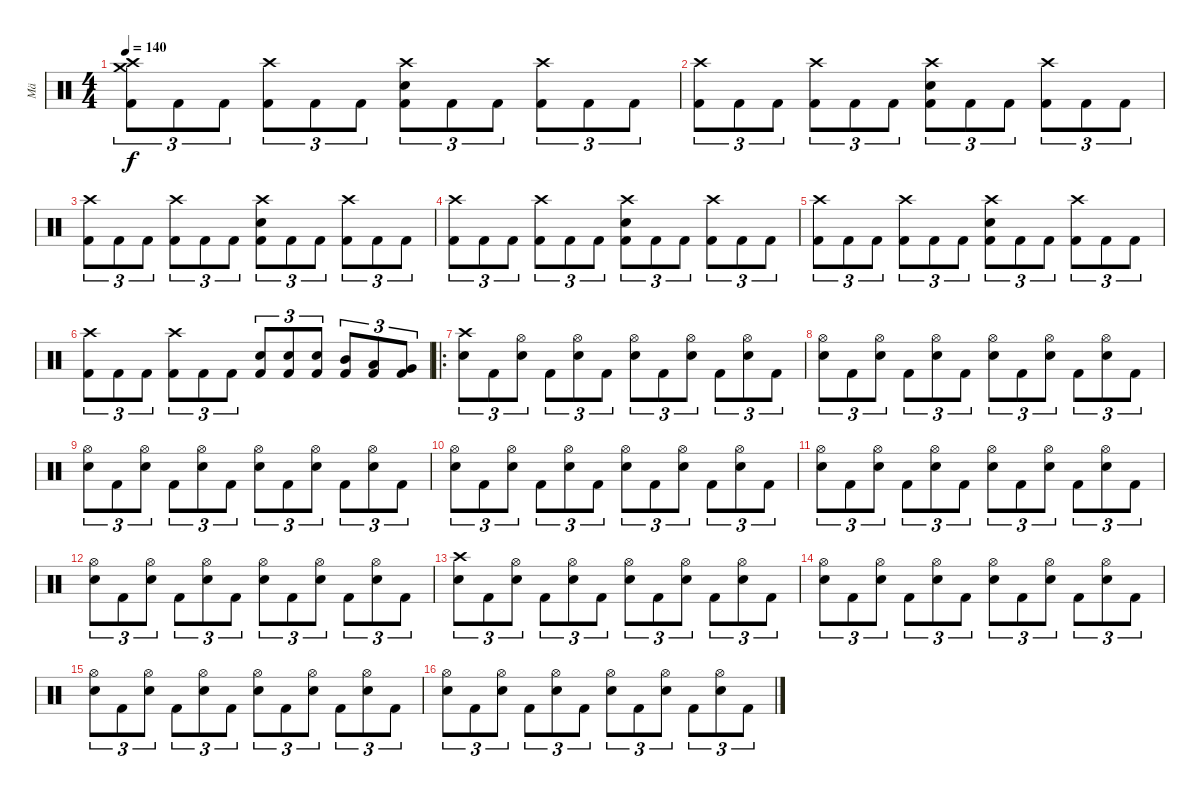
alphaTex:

\track ("Mä" "Mä") {instrument percussion}
\staff {score}
\articulation defaults
\ts (4 4)
\tempo 140
\clef neutral
\ks c
("Crash medium (hit)" "Crash high (hit)" "Kick (hit) 2").8{tu (3 2) dy f} "Kick (hit) 2".8{tu (3 2)} "Kick (hit) 2".8{tu (3 2)} ("Crash high (hit)" "Kick (hit) 2").8{tu (3 2)} "Kick (hit) 2".8{tu (3 2)} "Kick (hit) 2".8{tu (3 2)} ("Crash high (hit)" "Snare (hit) 2" "Kick (hit) 2").8{tu (3 2)} "Kick (hit) 2".8{tu (3 2)} "Kick (hit) 2".8{tu (3 2)} ("Crash high (hit)" "Kick (hit) 2").8{tu (3 2)} "Kick (hit) 2".8{tu (3 2)} "Kick (hit) 2".8{tu (3 2)} |
("Crash high (hit)" "Kick (hit) 2").8{tu (3 2)} "Kick (hit) 2".8{tu (3 2)} "Kick (hit) 2".8{tu (3 2)} ("Crash high (hit)" "Kick (hit) 2").8{tu (3 2)} "Kick (hit) 2".8{tu (3 2)} "Kick (hit) 2".8{tu (3 2)} ("Crash high (hit)" "Snare (hit) 2" "Kick (hit) 2").8{tu (3 2)} "Kick (hit) 2".8{tu (3 2)} "Kick (hit) 2".8{tu (3 2)} ("Crash high (hit)" "Kick (hit) 2").8{tu (3 2)} "Kick (hit) 2".8{tu (3 2)} "Kick (hit) 2".8{tu (3 2)} |
("Crash high (hit)" "Kick (hit) 2").8{tu (3 2)} "Kick (hit) 2".8{tu (3 2)} "Kick (hit) 2".8{tu (3 2)} ("Crash high (hit)" "Kick (hit) 2").8{tu (3 2)} "Kick (hit) 2".8{tu (3 2)} "Kick (hit) 2".8{tu (3 2)} ("Crash high (hit)" "Snare (hit) 2" "Kick (hit) 2").8{tu (3 2)} "Kick (hit) 2".8{tu (3 2)} "Kick (hit) 2".8{tu (3 2)} ("Crash high (hit)" "Kick (hit) 2").8{tu (3 2)} "Kick (hit) 2".8{tu (3 2)} "Kick (hit) 2".8{tu (3 2)} |
("Crash high (hit)" "Kick (hit) 2").8{tu (3 2)} "Kick (hit) 2".8{tu (3 2)} "Kick (hit) 2".8{tu (3 2)} ("Crash high (hit)" "Kick (hit) 2").8{tu (3 2)} "Kick (hit) 2".8{tu (3 2)} "Kick (hit) 2".8{tu (3 2)} ("Crash high (hit)" "Snare (hit) 2" "Kick (hit) 2").8{tu (3 2)} "Kick (hit) 2".8{tu (3 2)} "Kick (hit) 2".8{tu (3 2)} ("Crash high (hit)" "Kick (hit) 2").8{tu (3 2)} "Kick (hit) 2".8{tu (3 2)} "Kick (hit) 2".8{tu (3 2)} |
("Crash high (hit)" "Kick (hit) 2").8{tu (3 2)} "Kick (hit) 2".8{tu (3 2)} "Kick (hit) 2".8{tu (3 2)} ("Crash high (hit)" "Kick (hit) 2").8{tu (3 2)} "Kick (hit) 2".8{tu (3 2)} "Kick (hit) 2".8{tu (3 2)} ("Crash high (hit)" "Snare (hit) 2" "Kick (hit) 2").8{tu (3 2)} "Kick (hit) 2".8{tu (3 2)} "Kick (hit) 2".8{tu (3 2)} ("Crash high (hit)" "Kick (hit) 2").8{tu (3 2)} "Kick (hit) 2".8{tu (3 2)} "Kick (hit) 2".8{tu (3 2)} |
("Crash high (hit)" "Kick (hit) 2").8{tu (3 2)} "Kick (hit) 2".8{tu (3 2)} "Kick (hit) 2".8{tu (3 2)} ("Crash high (hit)" "Kick (hit) 2").8{tu (3 2)} "Kick (hit) 2".8{tu (3 2)} "Kick (hit) 2".8{tu (3 2)} ("Snare (hit) 2" "Kick (hit) 2").8{tu (3 2)} ("Snare (hit) 2" "Kick (hit) 2").8{tu (3 2)} ("Snare (hit) 2" "Kick (hit) 2").8{tu (3 2)} ("Mid Tom (hit)" "Kick (hit) 2").8{tu (3 2)} ("Low Tom (hit)" "Kick (hit) 2").8{tu (3 2)} ("Very Low Tom (hit)" "Kick (hit) 2").8{tu (3 2)} |
\ro
("Crash high (hit)" "Snare (hit) 2").8{tu (3 2)} "Kick (hit) 2".8{tu (3 2)} ("Hi-Hat (open)" "Snare (hit) 2").8{tu (3 2)} "Kick (hit) 2".8{tu (3 2)} ("Hi-Hat (open)" "Snare (hit) 2").8{tu (3 2)} "Kick (hit) 2".8{tu (3 2)} ("Hi-Hat (open)" "Snare (hit) 2").8{tu (3 2)} "Kick (hit) 2".8{tu (3 2)} ("Hi-Hat (open)" "Snare (hit) 2").8{tu (3 2)} "Kick (hit) 2".8{tu (3 2)} ("Hi-Hat (open)" "Snare (hit) 2").8{tu (3 2)} "Kick (hit) 2".8{tu (3 2)} |
("Hi-Hat (open)" "Snare (hit) 2").8{tu (3 2)} "Kick (hit) 2".8{tu (3 2)} ("Hi-Hat (open)" "Snare (hit) 2").8{tu (3 2)} "Kick (hit) 2".8{tu (3 2)} ("Hi-Hat (open)" "Snare (hit) 2").8{tu (3 2)} "Kick (hit) 2".8{tu (3 2)} ("Hi-Hat (open)" "Snare (hit) 2").8{tu (3 2)} "Kick (hit) 2".8{tu (3 2)} ("Hi-Hat (open)" "Snare (hit) 2").8{tu (3 2)} "Kick (hit) 2".8{tu (3 2)} ("Hi-Hat (open)" "Snare (hit) 2").8{tu (3 2)} "Kick (hit) 2".8{tu (3 2)} |
("Hi-Hat (open)" "Snare (hit) 2").8{tu (3 2)} "Kick (hit) 2".8{tu (3 2)} ("Hi-Hat (open)" "Snare (hit) 2").8{tu (3 2)} "Kick (hit) 2".8{tu (3 2)} ("Hi-Hat (open)" "Snare (hit) 2").8{tu (3 2)} "Kick (hit) 2".8{tu (3 2)} ("Hi-Hat (open)" "Snare (hit) 2").8{tu (3 2)} "Kick (hit) 2".8{tu (3 2)} ("Hi-Hat (open)" "Snare (hit) 2").8{tu (3 2)} "Kick (hit) 2".8{tu (3 2)} ("Hi-Hat (open)" "Snare (hit) 2").8{tu (3 2)} "Kick (hit) 2".8{tu (3 2)} |
("Hi-Hat (open)" "Snare (hit) 2").8{tu (3 2)} "Kick (hit) 2".8{tu (3 2)} ("Hi-Hat (open)" "Snare (hit) 2").8{tu (3 2)} "Kick (hit) 2".8{tu (3 2)} ("Hi-Hat (open)" "Snare (hit) 2").8{tu (3 2)} "Kick (hit) 2".8{tu (3 2)} ("Hi-Hat (open)" "Snare (hit) 2").8{tu (3 2)} "Kick (hit) 2".8{tu (3 2)} ("Hi-Hat (open)" "Snare (hit) 2").8{tu (3 2)} "Kick (hit) 2".8{tu (3 2)} ("Hi-Hat (open)" "Snare (hit) 2").8{tu (3 2)} "Kick (hit) 2".8{tu (3 2)} |
("Hi-Hat (open)" "Snare (hit) 2").8{tu (3 2)} "Kick (hit) 2".8{tu (3 2)} ("Hi-Hat (open)" "Snare (hit) 2").8{tu (3 2)} "Kick (hit) 2".8{tu (3 2)} ("Hi-Hat (open)" "Snare (hit) 2").8{tu (3 2)} "Kick (hit) 2".8{tu (3 2)} ("Hi-Hat (open)" "Snare (hit) 2").8{tu (3 2)} "Kick (hit) 2".8{tu (3 2)} ("Hi-Hat (open)" "Snare (hit) 2").8{tu (3 2)} "Kick (hit) 2".8{tu (3 2)} ("Hi-Hat (open)" "Snare (hit) 2").8{tu (3 2)} "Kick (hit) 2".8{tu (3 2)} |
("Hi-Hat (open)" "Snare (hit) 2").8{tu (3 2)} "Kick (hit) 2".8{tu (3 2)} ("Hi-Hat (open)" "Snare (hit) 2").8{tu (3 2)} "Kick (hit) 2".8{tu (3 2)} ("Hi-Hat (open)" "Snare (hit) 2").8{tu (3 2)} "Kick (hit) 2".8{tu (3 2)} ("Hi-Hat (open)" "Snare (hit) 2").8{tu (3 2)} "Kick (hit) 2".8{tu (3 2)} ("Hi-Hat (open)" "Snare (hit) 2").8{tu (3 2)} "Kick (hit) 2".8{tu (3 2)} ("Hi-Hat (open)" "Snare (hit) 2").8{tu (3 2)} "Kick (hit) 2".8{tu (3 2)} |
("Crash high (hit)" "Snare (hit) 2").8{tu (3 2)} "Kick (hit) 2".8{tu (3 2)} ("Hi-Hat (open)" "Snare (hit) 2").8{tu (3 2)} "Kick (hit) 2".8{tu (3 2)} ("Hi-Hat (open)" "Snare (hit) 2").8{tu (3 2)} "Kick (hit) 2".8{tu (3 2)} ("Hi-Hat (open)" "Snare (hit) 2").8{tu (3 2)} "Kick (hit) 2".8{tu (3 2)} ("Hi-Hat (open)" "Snare (hit) 2").8{tu (3 2)} "Kick (hit) 2".8{tu (3 2)} ("Hi-Hat (open)" "Snare (hit) 2").8{tu (3 2)} "Kick (hit) 2".8{tu (3 2)} |
("Hi-Hat (open)" "Snare (hit) 2").8{tu (3 2)} "Kick (hit) 2".8{tu (3 2)} ("Hi-Hat (open)" "Snare (hit) 2").8{tu (3 2)} "Kick (hit) 2".8{tu (3 2)} ("Hi-Hat (open)" "Snare (hit) 2").8{tu (3 2)} "Kick (hit) 2".8{tu (3 2)} ("Hi-Hat (open)" "Snare (hit) 2").8{tu (3 2)} "Kick (hit) 2".8{tu (3 2)} ("Hi-Hat (open)" "Snare (hit) 2").8{tu (3 2)} "Kick (hit) 2".8{tu (3 2)} ("Hi-Hat (open)" "Snare (hit) 2").8{tu (3 2)} "Kick (hit) 2".8{tu (3 2)} |
("Hi-Hat (open)" "Snare (hit) 2").8{tu (3 2)} "Kick (hit) 2".8{tu (3 2)} ("Hi-Hat (open)" "Snare (hit) 2").8{tu (3 2)} "Kick (hit) 2".8{tu (3 2)} ("Hi-Hat (open)" "Snare (hit) 2").8{tu (3 2)} "Kick (hit) 2".8{tu (3 2)} ("Hi-Hat (open)" "Snare (hit) 2").8{tu (3 2)} "Kick (hit) 2".8{tu (3 2)} ("Hi-Hat (open)" "Snare (hit) 2").8{tu (3 2)} "Kick (hit) 2".8{tu (3 2)} ("Hi-Hat (open)" "Snare (hit) 2").8{tu (3 2)} "Kick (hit) 2".8{tu (3 2)} |
("Hi-Hat (open)" "Snare (hit) 2").8{tu (3 2)} "Kick (hit) 2".8{tu (3 2)} ("Hi-Hat (open)" "Snare (hit) 2").8{tu (3 2)} "Kick (hit) 2".8{tu (3 2)} ("Hi-Hat (open)" "Snare (hit) 2").8{tu (3 2)} "Kick (hit) 2".8{tu (3 2)} ("Hi-Hat (open)" "Snare (hit) 2").8{tu (3 2)} "Kick (hit) 2".8{tu (3 2)} ("Hi-Hat (open)" "Snare (hit) 2").8{tu (3 2)} "Kick (hit) 2".8{tu (3 2)} ("Hi-Hat (open)" "Snare (hit) 2").8{tu (3 2)} "Kick (hit) 2".8{tu (3 2)}
